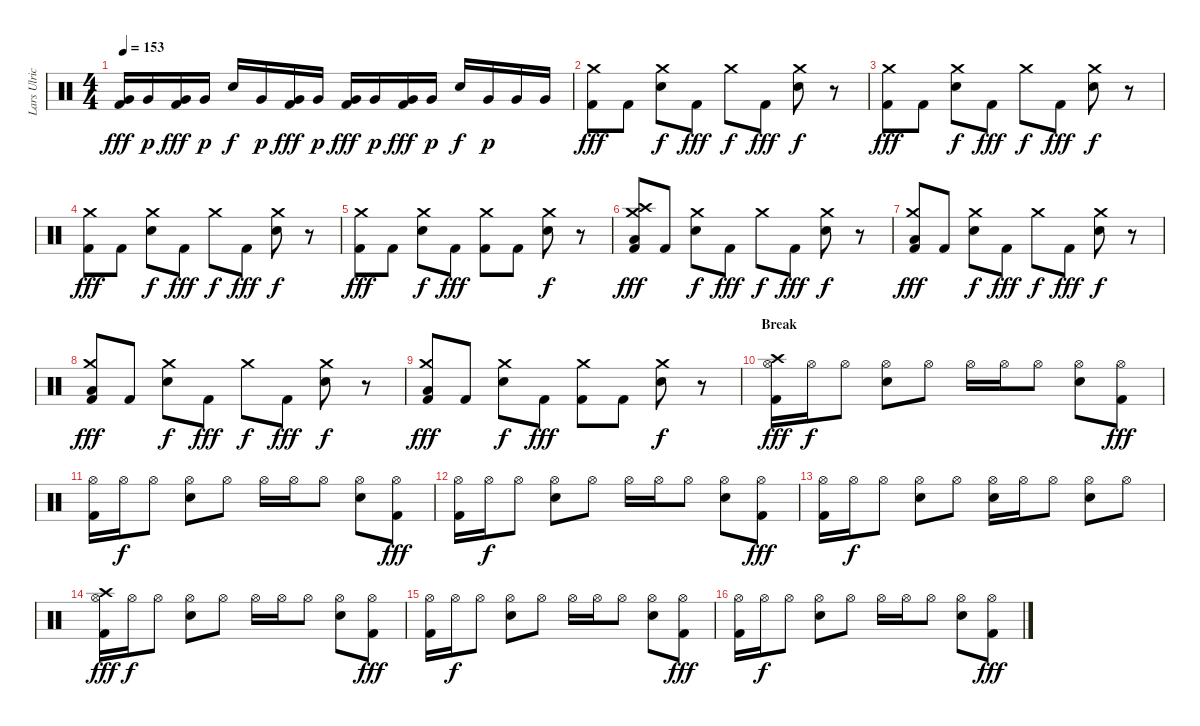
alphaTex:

\track ("Lars Ulrich (Drums)" "Lars Ulric") {instrument percussion}
\staff {score}
\articulation defaults
\ts (4 4)
\tempo 153
\clef neutral
\ks c
("Very Low Tom (hit)" "Kick (hit) 2").16{dy fff} "Very Low Tom (hit)".16{dy p} ("Very Low Tom (hit)" "Kick (hit) 2").16{dy fff} "Very Low Tom (hit)".16{dy p} "Electric Snare (hit)".16{dy f} "Very Low Tom (hit)".16{dy p} ("Very Low Tom (hit)" "Kick (hit) 2").16{dy fff} "Very Low Tom (hit)".16{dy p} ("Very Low Tom (hit)" "Kick (hit) 2").16{dy fff} "Very Low Tom (hit)".16{dy p} ("Very Low Tom (hit)" "Kick (hit) 2").16{dy fff} "Very Low Tom (hit)".16{dy p} "Electric Snare (hit)".16{dy f} "Very Low Tom (hit)".16{dy p} "Very Low Tom (hit)".16 "Very Low Tom (hit)".16 |
("Crash medium (hit)" "Kick (hit) 2").8{dy fff} "Kick (hit) 2".8 ("Crash medium (hit)" "Electric Snare (hit)").8{dy f} "Kick (hit) 2".8{dy fff} "Crash medium (hit)".8{dy f} "Kick (hit) 2".8{dy fff} ("Crash medium (hit)" "Electric Snare (hit)").8{dy f} r.8 |
("Crash medium (hit)" "Kick (hit) 2").8{dy fff} "Kick (hit) 2".8 ("Crash medium (hit)" "Electric Snare (hit)").8{dy f} "Kick (hit) 2".8{dy fff} "Crash medium (hit)".8{dy f} "Kick (hit) 2".8{dy fff} ("Crash medium (hit)" "Electric Snare (hit)").8{dy f} r.8 |
("Crash medium (hit)" "Kick (hit) 2").8{dy fff} "Kick (hit) 2".8 ("Crash medium (hit)" "Electric Snare (hit)").8{dy f} "Kick (hit) 2".8{dy fff} "Crash medium (hit)".8{dy f} "Kick (hit) 2".8{dy fff} ("Crash medium (hit)" "Electric Snare (hit)").8{dy f} r.8 |
("Crash medium (hit)" "Kick (hit) 2").8{dy fff} "Kick (hit) 2".8 ("Crash medium (hit)" "Electric Snare (hit)").8{dy f} "Kick (hit) 2".8{dy fff} ("Crash medium (hit)" "Kick (hit) 2").8 "Kick (hit) 2".8 ("Crash medium (hit)" "Electric Snare (hit)").8{dy f} r.8 |
("Crash medium (hit)" "Crash high (hit)" "Low Floor Tom (hit)" "Kick (hit) 2").8{dy fff} "Kick (hit) 2".8 ("Crash medium (hit)" "Electric Snare (hit)").8{dy f} "Kick (hit) 2".8{dy fff} "Crash medium (hit)".8{dy f} "Kick (hit) 2".8{dy fff} ("Crash medium (hit)" "Electric Snare (hit)").8{dy f} r.8 |
("Crash medium (hit)" "Low Floor Tom (hit)" "Kick (hit) 2").8{dy fff} "Kick (hit) 2".8 ("Crash medium (hit)" "Electric Snare (hit)").8{dy f} "Kick (hit) 2".8{dy fff} "Crash medium (hit)".8{dy f} "Kick (hit) 2".8{dy fff} ("Crash medium (hit)" "Electric Snare (hit)").8{dy f} r.8 |
("Crash medium (hit)" "Low Floor Tom (hit)" "Kick (hit) 2").8{dy fff} "Kick (hit) 2".8 ("Crash medium (hit)" "Electric Snare (hit)").8{dy f} "Kick (hit) 2".8{dy fff} "Crash medium (hit)".8{dy f} "Kick (hit) 2".8{dy fff} ("Crash medium (hit)" "Electric Snare (hit)").8{dy f} r.8 |
("Crash medium (hit)" "Low Floor Tom (hit)" "Kick (hit) 2").8{dy fff} "Kick (hit) 2".8 ("Crash medium (hit)" "Electric Snare (hit)").8{dy f} "Kick (hit) 2".8{dy fff} ("Crash medium (hit)" "Kick (hit) 2").8 "Kick (hit) 2".8 ("Crash medium (hit)" "Electric Snare (hit)").8{dy f} r.8 |
\section ("" "Break")
("Crash high (hit)" "Hi-Hat (open)" "Kick (hit) 2").16{dy fff} "Hi-Hat (open)".16{dy f} "Hi-Hat (open)".8 ("Hi-Hat (open)" "Electric Snare (hit)").8 "Hi-Hat (open)".8 "Hi-Hat (open)".16 "Hi-Hat (open)".16 "Hi-Hat (open)".8 ("Hi-Hat (open)" "Electric Snare (hit)").8 ("Hi-Hat (open)" "Kick (hit) 2").8{dy fff} |
("Hi-Hat (open)" "Kick (hit) 2").16 "Hi-Hat (open)".16{dy f} "Hi-Hat (open)".8 ("Hi-Hat (open)" "Electric Snare (hit)").8 "Hi-Hat (open)".8 "Hi-Hat (open)".16 "Hi-Hat (open)".16 "Hi-Hat (open)".8 ("Hi-Hat (open)" "Electric Snare (hit)").8 ("Hi-Hat (open)" "Kick (hit) 2").8{dy fff} |
("Hi-Hat (open)" "Kick (hit) 2").16 "Hi-Hat (open)".16{dy f} "Hi-Hat (open)".8 ("Hi-Hat (open)" "Electric Snare (hit)").8 "Hi-Hat (open)".8 "Hi-Hat (open)".16 "Hi-Hat (open)".16 "Hi-Hat (open)".8 ("Hi-Hat (open)" "Electric Snare (hit)").8 ("Hi-Hat (open)" "Kick (hit) 2").8{dy fff} |
("Hi-Hat (open)" "Kick (hit) 2").16 "Hi-Hat (open)".16{dy f} "Hi-Hat (open)".8 ("Hi-Hat (open)" "Electric Snare (hit)").8 "Hi-Hat (open)".8 ("Hi-Hat (open)" "Electric Snare (hit)").16 "Hi-Hat (open)".16 "Hi-Hat (open)".8 ("Hi-Hat (open)" "Electric Snare (hit)").8 "Hi-Hat (open)".8 |
("Crash high (hit)" "Hi-Hat (open)" "Kick (hit) 2").16{dy fff} "Hi-Hat (open)".16{dy f} "Hi-Hat (open)".8 ("Hi-Hat (open)" "Electric Snare (hit)").8 "Hi-Hat (open)".8 "Hi-Hat (open)".16 "Hi-Hat (open)".16 "Hi-Hat (open)".8 ("Hi-Hat (open)" "Electric Snare (hit)").8 ("Hi-Hat (open)" "Kick (hit) 2").8{dy fff} |
("Hi-Hat (open)" "Kick (hit) 2").16 "Hi-Hat (open)".16{dy f} "Hi-Hat (open)".8 ("Hi-Hat (open)" "Electric Snare (hit)").8 "Hi-Hat (open)".8 "Hi-Hat (open)".16 "Hi-Hat (open)".16 "Hi-Hat (open)".8 ("Hi-Hat (open)" "Electric Snare (hit)").8 ("Hi-Hat (open)" "Kick (hit) 2").8{dy fff} |
("Hi-Hat (open)" "Kick (hit) 2").16 "Hi-Hat (open)".16{dy f} "Hi-Hat (open)".8 ("Hi-Hat (open)" "Electric Snare (hit)").8 "Hi-Hat (open)".8 "Hi-Hat (open)".16 "Hi-Hat (open)".16 "Hi-Hat (open)".8 ("Hi-Hat (open)" "Electric Snare (hit)").8 ("Hi-Hat (open)" "Kick (hit) 2").8{dy fff}
